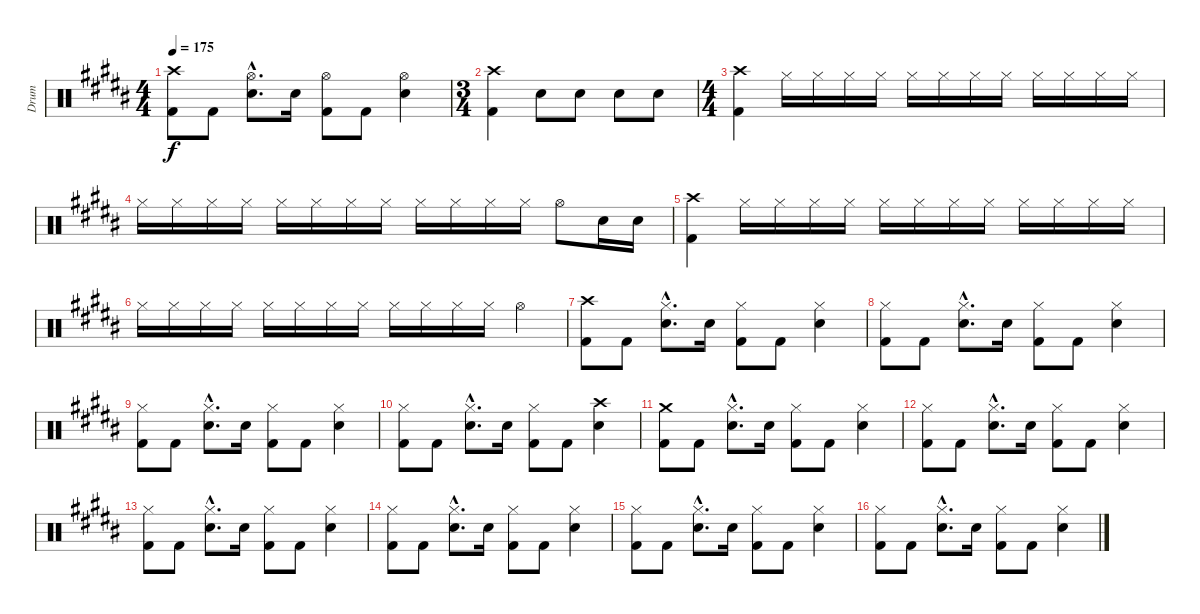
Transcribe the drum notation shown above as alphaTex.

\track ("Drum" "Drum") {instrument percussion}
\staff {score}
\articulation defaults
\ts (4 4)
\tempo 175
\clef neutral
\ks b
("Crash high (hit)" "Kick (hit) 2").8{dy f} "Kick (hit) 2".8 ("Hi-Hat (open)"{hac} "Snare (hit) 2"{hac}).8{d} "Snare (hit) 2".16 ("Hi-Hat (open)" "Kick (hit) 2").8 "Kick (hit) 2".8 ("Hi-Hat (open)" "Snare (hit) 2").4 |
\ts (3 4)
("Crash high (hit)" "Kick (hit) 2").4 "Snare (hit) 2".8 "Snare (hit) 2".8 "Snare (hit) 2".8 "Snare (hit) 2".8 |
\ts (4 4)
("Crash high (hit)" "Kick (hit) 2").4 "Hi-Hat (closed)".16 "Hi-Hat (closed)".16 "Hi-Hat (closed)".16 "Hi-Hat (closed)".16 "Hi-Hat (closed)".16 "Hi-Hat (closed)".16 "Hi-Hat (closed)".16 "Hi-Hat (closed)".16 "Hi-Hat (closed)".16 "Hi-Hat (closed)".16 "Hi-Hat (closed)".16 "Hi-Hat (closed)".16 |
"Hi-Hat (closed)".16 "Hi-Hat (closed)".16 "Hi-Hat (closed)".16 "Hi-Hat (closed)".16 "Hi-Hat (closed)".16 "Hi-Hat (closed)".16 "Hi-Hat (closed)".16 "Hi-Hat (closed)".16 "Hi-Hat (closed)".16 "Hi-Hat (closed)".16 "Hi-Hat (closed)".16 "Hi-Hat (closed)".16 "Hi-Hat (open)".8 "Snare (hit) 2".16 "Snare (hit) 2".16 |
("Crash high (hit)" "Kick (hit) 2").4 "Hi-Hat (closed)".16 "Hi-Hat (closed)".16 "Hi-Hat (closed)".16 "Hi-Hat (closed)".16 "Hi-Hat (closed)".16 "Hi-Hat (closed)".16 "Hi-Hat (closed)".16 "Hi-Hat (closed)".16 "Hi-Hat (closed)".16 "Hi-Hat (closed)".16 "Hi-Hat (closed)".16 "Hi-Hat (closed)".16 |
"Hi-Hat (closed)".16 "Hi-Hat (closed)".16 "Hi-Hat (closed)".16 "Hi-Hat (closed)".16 "Hi-Hat (closed)".16 "Hi-Hat (closed)".16 "Hi-Hat (closed)".16 "Hi-Hat (closed)".16 "Hi-Hat (closed)".16 "Hi-Hat (closed)".16 "Hi-Hat (closed)".16 "Hi-Hat (closed)".16 "Hi-Hat (open)".4 |
("Crash high (hit)" "Kick (hit) 2").8 "Kick (hit) 2".8 ("Hi-Hat (closed)"{hac} "Snare (hit) 2"{hac}).8{d} "Snare (hit) 2".16 ("Hi-Hat (closed)" "Kick (hit) 2").8 "Kick (hit) 2".8 ("Hi-Hat (closed)" "Snare (hit) 2").4 |
("Hi-Hat (closed)" "Kick (hit) 2").8 "Kick (hit) 2".8 ("Hi-Hat (closed)"{hac} "Snare (hit) 2"{hac}).8{d} "Snare (hit) 2".16 ("Hi-Hat (closed)" "Kick (hit) 2").8 "Kick (hit) 2".8 ("Hi-Hat (closed)" "Snare (hit) 2").4 |
("Hi-Hat (closed)" "Kick (hit) 2").8 "Kick (hit) 2".8 ("Hi-Hat (closed)"{hac} "Snare (hit) 2"{hac}).8{d} "Snare (hit) 2".16 ("Hi-Hat (closed)" "Kick (hit) 2").8 "Kick (hit) 2".8 ("Hi-Hat (closed)" "Snare (hit) 2").4 |
("Hi-Hat (closed)" "Kick (hit) 2").8 "Kick (hit) 2".8 ("Hi-Hat (closed)"{hac} "Snare (hit) 2"{hac}).8{d} "Snare (hit) 2".16 ("Hi-Hat (closed)" "Kick (hit) 2").8 "Kick (hit) 2".8 ("Crash high (hit)" "Snare (hit) 2").4 |
("Crash medium (hit)" "Kick (hit) 2").8 "Kick (hit) 2".8 ("Hi-Hat (closed)"{hac} "Snare (hit) 2"{hac}).8{d} "Snare (hit) 2".16 ("Hi-Hat (closed)" "Kick (hit) 2").8 "Kick (hit) 2".8 ("Hi-Hat (closed)" "Snare (hit) 2").4 |
("Hi-Hat (closed)" "Kick (hit) 2").8 "Kick (hit) 2".8 ("Hi-Hat (closed)"{hac} "Snare (hit) 2"{hac}).8{d} "Snare (hit) 2".16 ("Hi-Hat (closed)" "Kick (hit) 2").8 "Kick (hit) 2".8 ("Hi-Hat (closed)" "Snare (hit) 2").4 |
("Hi-Hat (closed)" "Kick (hit) 2").8 "Kick (hit) 2".8 ("Hi-Hat (closed)"{hac} "Snare (hit) 2"{hac}).8{d} "Snare (hit) 2".16 ("Hi-Hat (closed)" "Kick (hit) 2").8 "Kick (hit) 2".8 ("Hi-Hat (closed)" "Snare (hit) 2").4 |
("Hi-Hat (closed)" "Kick (hit) 2").8 "Kick (hit) 2".8 ("Hi-Hat (closed)"{hac} "Snare (hit) 2"{hac}).8{d} "Snare (hit) 2".16 ("Hi-Hat (closed)" "Kick (hit) 2").8 "Kick (hit) 2".8 ("Hi-Hat (closed)" "Snare (hit) 2").4 |
("Hi-Hat (closed)" "Kick (hit) 2").8 "Kick (hit) 2".8 ("Hi-Hat (closed)"{hac} "Snare (hit) 2"{hac}).8{d} "Snare (hit) 2".16 ("Hi-Hat (closed)" "Kick (hit) 2").8 "Kick (hit) 2".8 ("Hi-Hat (closed)" "Snare (hit) 2").4 |
("Hi-Hat (closed)" "Kick (hit) 2").8 "Kick (hit) 2".8 ("Hi-Hat (closed)"{hac} "Snare (hit) 2"{hac}).8{d} "Snare (hit) 2".16 ("Hi-Hat (closed)" "Kick (hit) 2").8 "Kick (hit) 2".8 ("Hi-Hat (closed)" "Snare (hit) 2").4
